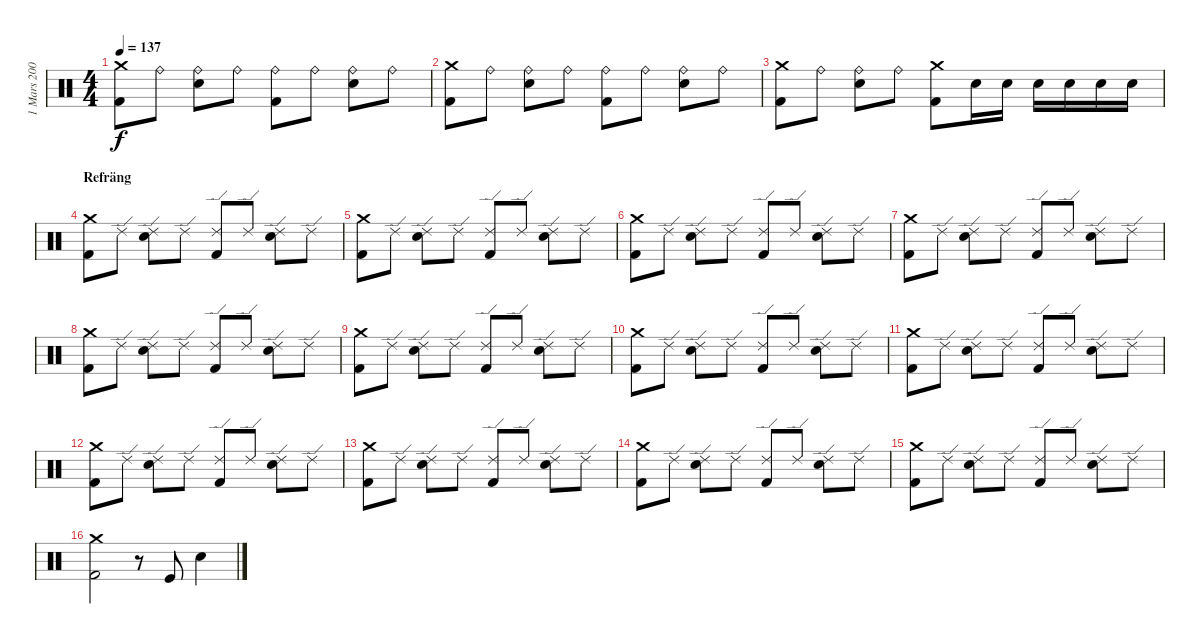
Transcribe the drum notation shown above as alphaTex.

\track ("1 Mars 2004" "1 Mars 200") {instrument percussion}
\staff {score}
\articulation defaults
\ts (4 4)
\tempo 137
\clef neutral
\ks c
("Crash medium (hit)" "Kick (hit) 2").8{dy f} "Ride (bell)".8 ("Ride (bell)" "Electric Snare (hit)").8 "Ride (bell)".8 ("Ride (bell)" "Kick (hit) 2").8 "Ride (bell)".8 ("Ride (bell)" "Electric Snare (hit)").8 "Ride (bell)".8 |
("Crash medium (hit)" "Kick (hit) 2").8 "Ride (bell)".8 ("Ride (bell)" "Electric Snare (hit)").8 "Ride (bell)".8 ("Ride (bell)" "Kick (hit) 2").8 "Ride (bell)".8 ("Ride (bell)" "Electric Snare (hit)").8 "Ride (bell)".8 |
("Crash medium (hit)" "Kick (hit) 2").8 "Ride (bell)".8 ("Ride (bell)" "Electric Snare (hit)").8 "Ride (bell)".8 ("Crash medium (hit)" "Kick (hit) 2").8 "Electric Snare (hit)".16 "Electric Snare (hit)".16 "Electric Snare (hit)".16 "Electric Snare (hit)".16 "Electric Snare (hit)".16 "Electric Snare (hit)".16 |
\section ("" "Refräng")
("Crash medium (hit)" "Kick (hit) 2").8 "Ride (edge) 2".8 ("Ride (edge) 2" "Electric Snare (hit)").8 "Ride (edge) 2".8 ("Ride (edge) 2" "Kick (hit) 2").8 "Ride (edge) 2".8 ("Ride (edge) 2" "Electric Snare (hit)").8 "Ride (edge) 2".8 |
("Crash medium (hit)" "Kick (hit) 2").8 "Ride (edge) 2".8 ("Ride (edge) 2" "Electric Snare (hit)").8 "Ride (edge) 2".8 ("Ride (edge) 2" "Kick (hit) 2").8 "Ride (edge) 2".8 ("Ride (edge) 2" "Electric Snare (hit)").8 "Ride (edge) 2".8 |
("Crash medium (hit)" "Kick (hit) 2").8 "Ride (edge) 2".8 ("Ride (edge) 2" "Electric Snare (hit)").8 "Ride (edge) 2".8 ("Ride (edge) 2" "Kick (hit) 2").8 "Ride (edge) 2".8 ("Ride (edge) 2" "Electric Snare (hit)").8 "Ride (edge) 2".8 |
("Crash medium (hit)" "Kick (hit) 2").8 "Ride (edge) 2".8 ("Ride (edge) 2" "Electric Snare (hit)").8 "Ride (edge) 2".8 ("Ride (edge) 2" "Kick (hit) 2").8 "Ride (edge) 2".8 ("Ride (edge) 2" "Electric Snare (hit)").8 "Ride (edge) 2".8 |
("Crash medium (hit)" "Kick (hit) 2").8 "Ride (edge) 2".8 ("Ride (edge) 2" "Electric Snare (hit)").8 "Ride (edge) 2".8 ("Ride (edge) 2" "Kick (hit) 2").8 "Ride (edge) 2".8 ("Ride (edge) 2" "Electric Snare (hit)").8 "Ride (edge) 2".8 |
("Crash medium (hit)" "Kick (hit) 2").8 "Ride (edge) 2".8 ("Ride (edge) 2" "Electric Snare (hit)").8 "Ride (edge) 2".8 ("Ride (edge) 2" "Kick (hit) 2").8 "Ride (edge) 2".8 ("Ride (edge) 2" "Electric Snare (hit)").8 "Ride (edge) 2".8 |
("Crash medium (hit)" "Kick (hit) 2").8 "Ride (edge) 2".8 ("Ride (edge) 2" "Electric Snare (hit)").8 "Ride (edge) 2".8 ("Ride (edge) 2" "Kick (hit) 2").8 "Ride (edge) 2".8 ("Ride (edge) 2" "Electric Snare (hit)").8 "Ride (edge) 2".8 |
("Crash medium (hit)" "Kick (hit) 2").8 "Ride (edge) 2".8 ("Ride (edge) 2" "Electric Snare (hit)").8 "Ride (edge) 2".8 ("Ride (edge) 2" "Kick (hit) 2").8 "Ride (edge) 2".8 ("Ride (edge) 2" "Electric Snare (hit)").8 "Ride (edge) 2".8 |
("Crash medium (hit)" "Kick (hit) 2").8 "Ride (edge) 2".8 ("Ride (edge) 2" "Electric Snare (hit)").8 "Ride (edge) 2".8 ("Ride (edge) 2" "Kick (hit) 2").8 "Ride (edge) 2".8 ("Ride (edge) 2" "Electric Snare (hit)").8 "Ride (edge) 2".8 |
("Crash medium (hit)" "Kick (hit) 2").8 "Ride (edge) 2".8 ("Ride (edge) 2" "Electric Snare (hit)").8 "Ride (edge) 2".8 ("Ride (edge) 2" "Kick (hit) 2").8 "Ride (edge) 2".8 ("Ride (edge) 2" "Electric Snare (hit)").8 "Ride (edge) 2".8 |
("Crash medium (hit)" "Kick (hit) 2").8 "Ride (edge) 2".8 ("Ride (edge) 2" "Electric Snare (hit)").8 "Ride (edge) 2".8 ("Ride (edge) 2" "Kick (hit) 2").8 "Ride (edge) 2".8 ("Ride (edge) 2" "Electric Snare (hit)").8 "Ride (edge) 2".8 |
("Crash medium (hit)" "Kick (hit) 2").8 "Ride (edge) 2".8 ("Ride (edge) 2" "Electric Snare (hit)").8 "Ride (edge) 2".8 ("Ride (edge) 2" "Kick (hit) 2").8 "Ride (edge) 2".8 ("Ride (edge) 2" "Electric Snare (hit)").8 "Ride (edge) 2".8 |
("Crash medium (hit)" "Kick (hit) 2").2 r.8 "Kick (hit)".8 "Electric Snare (hit)".4
